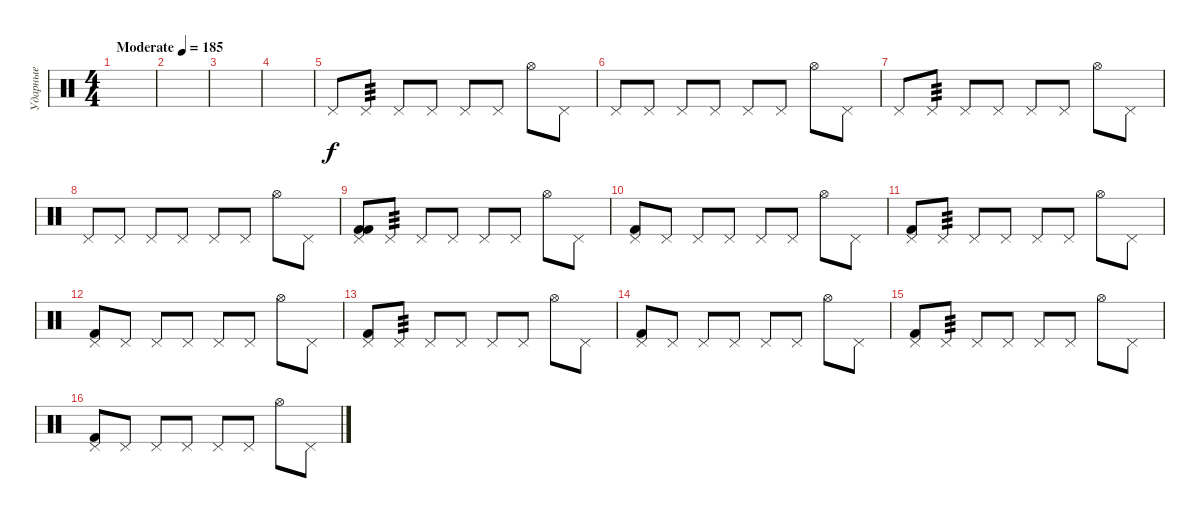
\track ("Ударные" "Ударные") {instrument percussion}
\staff {score}
\articulation defaults
\ts (4 4)
\tempo (185 "Moderate")
\clef neutral
\ks c
|
|
|
|
"Pedal Hi-Hat (hit)".8 "Pedal Hi-Hat (hit)".8{tp 3} "Pedal Hi-Hat (hit)".8 "Pedal Hi-Hat (hit)".8 "Pedal Hi-Hat (hit)".8 "Pedal Hi-Hat (hit)".8 "Hi-Hat (open)".8 "Pedal Hi-Hat (hit)".8 |
"Pedal Hi-Hat (hit)".8 "Pedal Hi-Hat (hit)".8 "Pedal Hi-Hat (hit)".8 "Pedal Hi-Hat (hit)".8 "Pedal Hi-Hat (hit)".8 "Pedal Hi-Hat (hit)".8 "Hi-Hat (open)".8 "Pedal Hi-Hat (hit)".8 |
"Pedal Hi-Hat (hit)".8 "Pedal Hi-Hat (hit)".8{tp 3} "Pedal Hi-Hat (hit)".8 "Pedal Hi-Hat (hit)".8 "Pedal Hi-Hat (hit)".8 "Pedal Hi-Hat (hit)".8 "Hi-Hat (open)".8 "Pedal Hi-Hat (hit)".8 |
"Pedal Hi-Hat (hit)".8 "Pedal Hi-Hat (hit)".8 "Pedal Hi-Hat (hit)".8 "Pedal Hi-Hat (hit)".8 "Pedal Hi-Hat (hit)".8 "Pedal Hi-Hat (hit)".8 "Hi-Hat (open)".8 "Pedal Hi-Hat (hit)".8 |
("Kick (hit) 2" "Pedal Hi-Hat (hit)" "Kick (hit) 2").8 "Pedal Hi-Hat (hit)".8{tp 3} "Pedal Hi-Hat (hit)".8 "Pedal Hi-Hat (hit)".8 "Pedal Hi-Hat (hit)".8 "Pedal Hi-Hat (hit)".8 "Hi-Hat (open)".8 "Pedal Hi-Hat (hit)".8 |
("Kick (hit) 2" "Pedal Hi-Hat (hit)").8 "Pedal Hi-Hat (hit)".8 "Pedal Hi-Hat (hit)".8 "Pedal Hi-Hat (hit)".8 "Pedal Hi-Hat (hit)".8 "Pedal Hi-Hat (hit)".8 "Hi-Hat (open)".8 "Pedal Hi-Hat (hit)".8 |
("Kick (hit) 2" "Pedal Hi-Hat (hit)").8 "Pedal Hi-Hat (hit)".8{tp 3} "Pedal Hi-Hat (hit)".8 "Pedal Hi-Hat (hit)".8 "Pedal Hi-Hat (hit)".8 "Pedal Hi-Hat (hit)".8 "Hi-Hat (open)".8 "Pedal Hi-Hat (hit)".8 |
("Kick (hit) 2" "Pedal Hi-Hat (hit)").8 "Pedal Hi-Hat (hit)".8 "Pedal Hi-Hat (hit)".8 "Pedal Hi-Hat (hit)".8 "Pedal Hi-Hat (hit)".8 "Pedal Hi-Hat (hit)".8 "Hi-Hat (open)".8 "Pedal Hi-Hat (hit)".8 |
("Kick (hit) 2" "Pedal Hi-Hat (hit)").8 "Pedal Hi-Hat (hit)".8{tp 3} "Pedal Hi-Hat (hit)".8 "Pedal Hi-Hat (hit)".8 "Pedal Hi-Hat (hit)".8 "Pedal Hi-Hat (hit)".8 "Hi-Hat (open)".8 "Pedal Hi-Hat (hit)".8 |
("Kick (hit) 2" "Pedal Hi-Hat (hit)").8 "Pedal Hi-Hat (hit)".8 "Pedal Hi-Hat (hit)".8 "Pedal Hi-Hat (hit)".8 "Pedal Hi-Hat (hit)".8 "Pedal Hi-Hat (hit)".8 "Hi-Hat (open)".8 "Pedal Hi-Hat (hit)".8 |
("Kick (hit) 2" "Pedal Hi-Hat (hit)").8 "Pedal Hi-Hat (hit)".8{tp 3} "Pedal Hi-Hat (hit)".8 "Pedal Hi-Hat (hit)".8 "Pedal Hi-Hat (hit)".8 "Pedal Hi-Hat (hit)".8 "Hi-Hat (open)".8 "Pedal Hi-Hat (hit)".8 |
("Kick (hit) 2" "Pedal Hi-Hat (hit)").8 "Pedal Hi-Hat (hit)".8 "Pedal Hi-Hat (hit)".8 "Pedal Hi-Hat (hit)".8 "Pedal Hi-Hat (hit)".8 "Pedal Hi-Hat (hit)".8 "Hi-Hat (open)".8 "Pedal Hi-Hat (hit)".8
